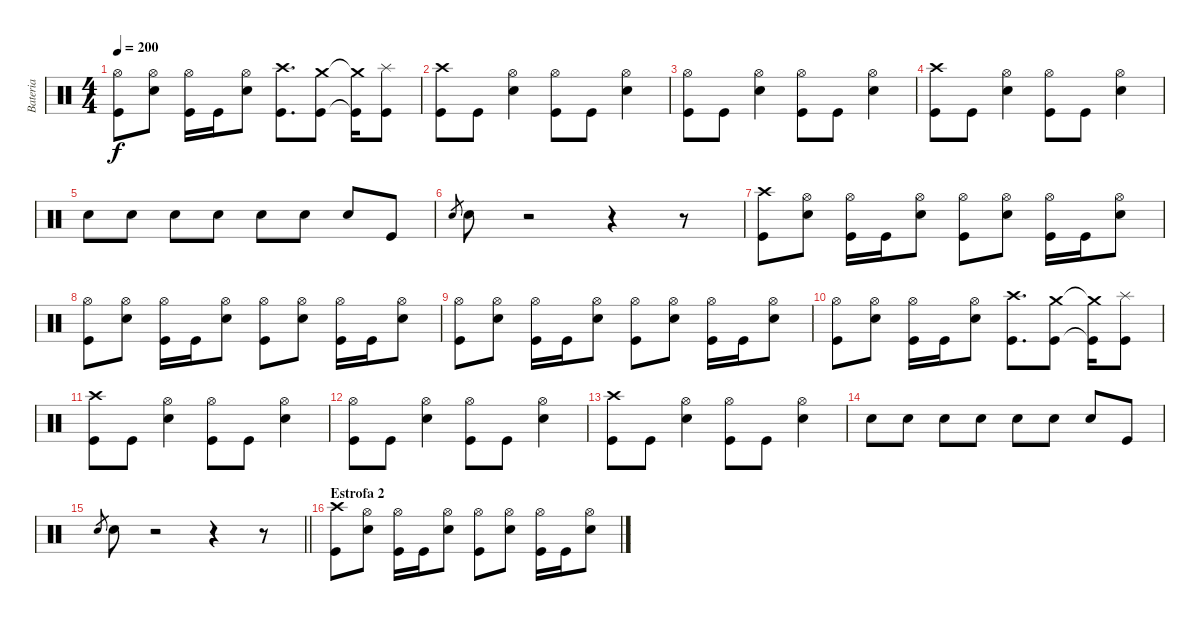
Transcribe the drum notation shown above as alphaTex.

\track ("Bateria" "Bateria") {instrument percussion}
\staff {score}
\articulation defaults
\ts (4 4)
\tempo 200
\clef neutral
\ks c
("Hi-Hat (open)" "Kick (hit)").8{dy f} ("Hi-Hat (open)" "Snare (hit) 2").8 ("Hi-Hat (open)" "Kick (hit)").16 "Kick (hit)".16 ("Hi-Hat (open)" "Snare (hit) 2").8 ("Crash high (hit)" "Kick (hit)").8{d} ("Crash medium (hit)" "Kick (hit)").8 ("Crash medium (hit)"{t} "Kick (hit)"{t}).16 ("Splash (hit)" "Kick (hit)").8 |
("Crash high (hit)" "Kick (hit)").8 "Kick (hit)".8 ("Hi-Hat (open)" "Snare (hit) 2").4 ("Hi-Hat (open)" "Kick (hit)").8 "Kick (hit)".8 ("Hi-Hat (open)" "Snare (hit) 2").4 |
("Hi-Hat (open)" "Kick (hit)").8 "Kick (hit)".8 ("Hi-Hat (open)" "Snare (hit) 2").4 ("Hi-Hat (open)" "Kick (hit)").8 "Kick (hit)".8 ("Hi-Hat (open)" "Snare (hit) 2").4 |
("Crash high (hit)" "Kick (hit)").8 "Kick (hit)".8 ("Hi-Hat (open)" "Snare (hit) 2").4 ("Hi-Hat (open)" "Kick (hit)").8 "Kick (hit)".8 ("Hi-Hat (open)" "Snare (hit) 2").4 |
"Snare (hit) 2".8 "Snare (hit) 2".8 "Snare (hit) 2".8 "Snare (hit) 2".8 "Snare (hit) 2".8 "Snare (hit) 2".8 "Snare (hit) 2".8 "Kick (hit)".8 |
"Snare (hit) 2".8{gr} "Snare (hit) 2".8 r.2 r.4 r.8 |
("Crash high (hit)" "Kick (hit)").8 ("Hi-Hat (open)" "Snare (hit) 2").8 ("Hi-Hat (open)" "Kick (hit)").16 "Kick (hit)".16 ("Hi-Hat (open)" "Snare (hit) 2").8 ("Hi-Hat (open)" "Kick (hit)").8 ("Hi-Hat (open)" "Snare (hit) 2").8 ("Hi-Hat (open)" "Kick (hit)").16 "Kick (hit)".16 ("Hi-Hat (open)" "Snare (hit) 2").8 |
("Hi-Hat (open)" "Kick (hit)").8 ("Hi-Hat (open)" "Snare (hit) 2").8 ("Hi-Hat (open)" "Kick (hit)").16 "Kick (hit)".16 ("Hi-Hat (open)" "Snare (hit) 2").8 ("Hi-Hat (open)" "Kick (hit)").8 ("Hi-Hat (open)" "Snare (hit) 2").8 ("Hi-Hat (open)" "Kick (hit)").16 "Kick (hit)".16 ("Hi-Hat (open)" "Snare (hit) 2").8 |
("Hi-Hat (open)" "Kick (hit)").8 ("Hi-Hat (open)" "Snare (hit) 2").8 ("Hi-Hat (open)" "Kick (hit)").16 "Kick (hit)".16 ("Hi-Hat (open)" "Snare (hit) 2").8 ("Hi-Hat (open)" "Kick (hit)").8 ("Hi-Hat (open)" "Snare (hit) 2").8 ("Hi-Hat (open)" "Kick (hit)").16 "Kick (hit)".16 ("Hi-Hat (open)" "Snare (hit) 2").8 |
("Hi-Hat (open)" "Kick (hit)").8 ("Hi-Hat (open)" "Snare (hit) 2").8 ("Hi-Hat (open)" "Kick (hit)").16 "Kick (hit)".16 ("Hi-Hat (open)" "Snare (hit) 2").8 ("Crash high (hit)" "Kick (hit)").8{d} ("Crash medium (hit)" "Kick (hit)").8 ("Crash medium (hit)"{t} "Kick (hit)"{t}).16 ("Splash (hit)" "Kick (hit)").8 |
("Crash high (hit)" "Kick (hit)").8 "Kick (hit)".8 ("Hi-Hat (open)" "Snare (hit) 2").4 ("Hi-Hat (open)" "Kick (hit)").8 "Kick (hit)".8 ("Hi-Hat (open)" "Snare (hit) 2").4 |
("Hi-Hat (open)" "Kick (hit)").8 "Kick (hit)".8 ("Hi-Hat (open)" "Snare (hit) 2").4 ("Hi-Hat (open)" "Kick (hit)").8 "Kick (hit)".8 ("Hi-Hat (open)" "Snare (hit) 2").4 |
("Crash high (hit)" "Kick (hit)").8 "Kick (hit)".8 ("Hi-Hat (open)" "Snare (hit) 2").4 ("Hi-Hat (open)" "Kick (hit)").8 "Kick (hit)".8 ("Hi-Hat (open)" "Snare (hit) 2").4 |
"Snare (hit) 2".8 "Snare (hit) 2".8 "Snare (hit) 2".8 "Snare (hit) 2".8 "Snare (hit) 2".8 "Snare (hit) 2".8 "Snare (hit) 2".8 "Kick (hit)".8 |
\barLineRight lightlight "Snare (hit) 2".8{gr} "Snare (hit) 2".8
r.2 r.4 r.8 |
\section ("" "Estrofa 2")
("Crash high (hit)" "Kick (hit)").8 ("Hi-Hat (open)" "Snare (hit) 2").8 ("Hi-Hat (open)" "Kick (hit)").16 "Kick (hit)".16 ("Hi-Hat (open)" "Snare (hit) 2").8 ("Hi-Hat (open)" "Kick (hit)").8 ("Hi-Hat (open)" "Snare (hit) 2").8 ("Hi-Hat (open)" "Kick (hit)").16 "Kick (hit)".16 ("Hi-Hat (open)" "Snare (hit) 2").8
